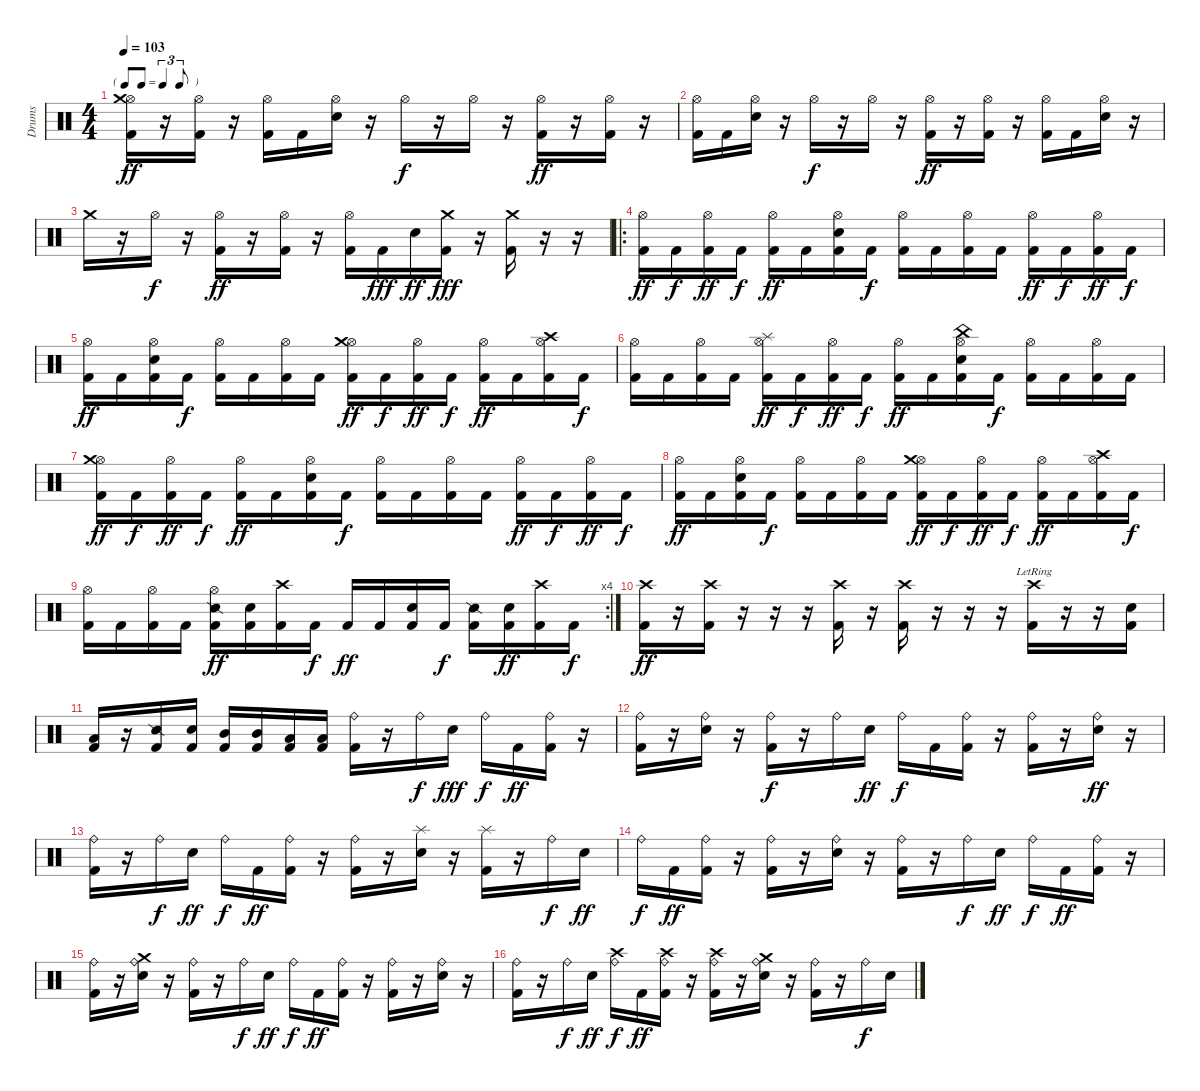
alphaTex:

\track ("Drums" "Drums") {instrument percussion}
\staff {score}
\articulation defaults
\ts (4 4)
\tf triplet8th
\tempo 103
\clef neutral
\ks c
("Hi-Hat (open)" "Crash medium (hit)" "Kick (hit) 2").16{dy ff} r.16 ("Hi-Hat (open)" "Kick (hit) 2").16 r.16 ("Hi-Hat (open)" "Kick (hit) 2").16 "Kick (hit) 2".16 ("Hi-Hat (open)" "Electric Snare (hit)").16 r.16 "Hi-Hat (open)".16{dy f} r.16 "Hi-Hat (open)".16 r.16 ("Hi-Hat (open)" "Kick (hit) 2").16{dy ff} r.16 ("Hi-Hat (open)" "Kick (hit) 2").16 r.16 |
("Hi-Hat (open)" "Kick (hit) 2").16 "Kick (hit) 2".16 ("Hi-Hat (open)" "Electric Snare (hit)").16 r.16 "Hi-Hat (open)".16{dy f} r.16 "Hi-Hat (open)".16 r.16 ("Hi-Hat (open)" "Kick (hit) 2").16{dy ff} r.16 ("Hi-Hat (open)" "Kick (hit) 2").16 r.16 ("Hi-Hat (open)" "Kick (hit) 2").16 "Kick (hit) 2".16 ("Hi-Hat (open)" "Electric Snare (hit)").16 r.16 |
"Crash medium (hit)".16 r.16 "Hi-Hat (open)".16{dy f} r.16 ("Hi-Hat (open)" "Kick (hit) 2").16{dy ff} r.16 ("Hi-Hat (open)" "Kick (hit) 2").16 r.16 ("Hi-Hat (open)" "Kick (hit) 2").16 "Kick (hit) 2".16{dy fff} "Electric Snare (hit)".16{dy ff} ("Crash medium (hit)" "Kick (hit) 2").16{dy fff} r.16 ("Crash medium (hit)" "Kick (hit) 2").16 r.16 r.16 |
\ro
("Hi-Hat (open)" "Kick (hit) 2").16{dy ff} "Kick (hit) 2".16{dy f} ("Hi-Hat (open)" "Kick (hit) 2").16{dy ff} "Kick (hit) 2".16{dy f} ("Hi-Hat (open)" "Kick (hit) 2").16{dy ff} "Kick (hit) 2".16 ("Hi-Hat (open)" "Electric Snare (hit)" "Kick (hit) 2").16 "Kick (hit) 2".16{dy f} ("Hi-Hat (open)" "Kick (hit) 2").16 "Kick (hit) 2".16 ("Hi-Hat (open)" "Kick (hit) 2").16 "Kick (hit) 2".16 ("Hi-Hat (open)" "Kick (hit) 2").16{dy ff} "Kick (hit) 2".16{dy f} ("Hi-Hat (open)" "Kick (hit) 2").16{dy ff} "Kick (hit) 2".16{dy f} |
("Hi-Hat (open)" "Kick (hit) 2").16{dy ff} "Kick (hit) 2".16 ("Hi-Hat (open)" "Electric Snare (hit)" "Kick (hit) 2").16 "Kick (hit) 2".16{dy f} ("Hi-Hat (open)" "Kick (hit) 2").16 "Kick (hit) 2".16 ("Hi-Hat (open)" "Kick (hit) 2").16 "Kick (hit) 2".16 ("Hi-Hat (open)" "Crash medium (hit)" "Kick (hit) 2").16{dy ff} "Kick (hit) 2".16{dy f} ("Hi-Hat (open)" "Kick (hit) 2").16{dy ff} "Kick (hit) 2".16{dy f} ("Hi-Hat (open)" "Kick (hit) 2").16{dy ff} "Kick (hit) 2".16 ("Hi-Hat (open)" "Crash high (hit)" "Kick (hit) 2").16 "Kick (hit) 2".16{dy f} |
("Hi-Hat (open)" "Kick (hit) 2").16 "Kick (hit) 2".16 ("Hi-Hat (open)" "Kick (hit) 2").16 "Kick (hit) 2".16 ("Hi-Hat (open)" "Splash (hit)" "Kick (hit) 2").16{dy ff} "Kick (hit) 2".16{dy f} ("Hi-Hat (open)" "Kick (hit) 2").16{dy ff} "Kick (hit) 2".16{dy f} ("Hi-Hat (open)" "Kick (hit) 2").16{dy ff} "Kick (hit) 2".16 ("Hi-Hat (open)" "China (hit)" "Electric Snare (hit)" "Kick (hit) 2").16 "Kick (hit) 2".16{dy f} ("Hi-Hat (open)" "Kick (hit) 2").16 "Kick (hit) 2".16 ("Hi-Hat (open)" "Kick (hit) 2").16 "Kick (hit) 2".16 |
("Hi-Hat (open)" "Crash medium (hit)" "Kick (hit) 2").16{dy ff} "Kick (hit) 2".16{dy f} ("Hi-Hat (open)" "Kick (hit) 2").16{dy ff} "Kick (hit) 2".16{dy f} ("Hi-Hat (open)" "Kick (hit) 2").16{dy ff} "Kick (hit) 2".16 ("Hi-Hat (open)" "Electric Snare (hit)" "Kick (hit) 2").16 "Kick (hit) 2".16{dy f} ("Hi-Hat (open)" "Kick (hit) 2").16 "Kick (hit) 2".16 ("Hi-Hat (open)" "Kick (hit) 2").16 "Kick (hit) 2".16 ("Hi-Hat (open)" "Kick (hit) 2").16{dy ff} "Kick (hit) 2".16{dy f} ("Hi-Hat (open)" "Kick (hit) 2").16{dy ff} "Kick (hit) 2".16{dy f} |
("Hi-Hat (open)" "Kick (hit) 2").16{dy ff} "Kick (hit) 2".16 ("Hi-Hat (open)" "Electric Snare (hit)" "Kick (hit) 2").16 "Kick (hit) 2".16{dy f} ("Hi-Hat (open)" "Kick (hit) 2").16 "Kick (hit) 2".16 ("Hi-Hat (open)" "Kick (hit) 2").16 "Kick (hit) 2".16 ("Hi-Hat (open)" "Crash medium (hit)" "Kick (hit) 2").16{dy ff} "Kick (hit) 2".16{dy f} ("Hi-Hat (open)" "Kick (hit) 2").16{dy ff} "Kick (hit) 2".16{dy f} ("Hi-Hat (open)" "Kick (hit) 2").16{dy ff} "Kick (hit) 2".16 ("Hi-Hat (open)" "Crash high (hit)" "Kick (hit) 2").16 "Kick (hit) 2".16{dy f} |
\rc 4
("Hi-Hat (open)" "Kick (hit) 2").16 "Kick (hit) 2".16 ("Hi-Hat (open)" "Kick (hit) 2").16 "Kick (hit) 2".16 ("Hi-Hat (open)" "Snare (side stick) 2" "Kick (hit) 2").16{dy ff} ("Electric Snare (hit)" "Kick (hit) 2").16 ("Crash high (hit)" "Kick (hit) 2").16 "Kick (hit) 2".16{dy f} "Kick (hit) 2".16{dy ff} "Kick (hit) 2".16 ("Electric Snare (hit)" "Kick (hit) 2").16 "Kick (hit) 2".16{dy f} ("Snare (side stick) 2" "Kick (hit) 2").16 ("Electric Snare (hit)" "Kick (hit) 2").16{dy ff} ("Crash high (hit)" "Kick (hit) 2").16 "Kick (hit) 2".16{dy f} |
("Crash high (hit)" "Kick (hit) 2").16{dy ff} r.16 ("Crash high (hit)" "Kick (hit) 2").16 r.16 r.16 r.16 ("Crash high (hit)" "Kick (hit) 2").16 r.16 ("Crash high (hit)" "Kick (hit) 2").16 r.16 r.16 r.16 ("Crash high (hit)"{lr} "Kick (hit) 2").16 r.16 r.16 ("Electric Snare (hit)" "Kick (hit) 2").16 |
("Low Tom (hit)" "Kick (hit) 2").16 r.16 ("Snare (side stick) 2" "Kick (hit) 2").16 ("Electric Snare (hit)" "Kick (hit) 2").16 ("Mid Tom (hit)" "Kick (hit) 2").16 ("Mid Tom (hit)" "Kick (hit) 2").16 ("Low Tom (hit)" "Kick (hit) 2").16 ("Low Tom (hit)" "Kick (hit) 2").16 ("Ride (bell)" "Kick (hit) 2").16 r.16 "Ride (bell)".16{dy f} "Electric Snare (hit)".16{dy fff} "Ride (bell)".16{dy f} "Kick (hit) 2".16{dy ff} ("Ride (bell)" "Kick (hit) 2").16 r.16 |
("Ride (bell)" "Kick (hit) 2").16 r.16 ("Ride (bell)" "Electric Snare (hit)").16 r.16 ("Ride (bell)" "Kick (hit) 2").16{dy f} r.16 "Ride (bell)".16 "Electric Snare (hit)".16{dy ff} "Ride (bell)".16{dy f} "Kick (hit) 2".16 ("Ride (bell)" "Kick (hit) 2").16 r.16 ("Ride (bell)" "Kick (hit) 2").16 r.16 ("Ride (bell)" "Electric Snare (hit)").16{dy ff} r.16 |
("Ride (bell)" "Kick (hit) 2").16 r.16 "Ride (bell)".16{dy f} "Electric Snare (hit)".16{dy ff} "Ride (bell)".16{dy f} "Kick (hit) 2".16{dy ff} ("Ride (bell)" "Kick (hit) 2").16 r.16 ("Ride (bell)" "Kick (hit) 2").16 r.16 ("Splash (hit)" "Electric Snare (hit)").16 r.16 ("Splash (hit)" "Kick (hit) 2").16 r.16 "Ride (bell)".16{dy f} "Electric Snare (hit)".16{dy ff} |
"Ride (bell)".16{dy f} "Kick (hit) 2".16{dy ff} ("Ride (bell)" "Kick (hit) 2").16 r.16 ("Ride (bell)" "Kick (hit) 2").16 r.16 ("Ride (bell)" "Electric Snare (hit)").16 r.16 ("Ride (bell)" "Kick (hit) 2").16 r.16 "Ride (bell)".16{dy f} "Electric Snare (hit)".16{dy ff} "Ride (bell)".16{dy f} "Kick (hit) 2".16{dy ff} ("Ride (bell)" "Kick (hit) 2").16 r.16 |
("Ride (bell)" "Kick (hit) 2").16 r.16 ("Ride (bell)" "Crash medium (hit)" "Electric Snare (hit)").16 r.16 ("Ride (bell)" "Kick (hit) 2").16 r.16 "Ride (bell)".16{dy f} "Electric Snare (hit)".16{dy ff} "Ride (bell)".16{dy f} "Kick (hit) 2".16{dy ff} ("Ride (bell)" "Kick (hit) 2").16 r.16 ("Ride (bell)" "Kick (hit) 2").16 r.16 ("Ride (bell)" "Electric Snare (hit)").16 r.16 |
("Ride (bell)" "Kick (hit) 2").16 r.16 "Ride (bell)".16{dy f} "Electric Snare (hit)".16{dy ff} ("Ride (bell)" "Crash high (hit)").16{dy f} "Kick (hit) 2".16{dy ff} ("Ride (bell)" "Crash high (hit)" "Kick (hit) 2").16 r.16 ("Ride (bell)" "Crash high (hit)" "Kick (hit) 2").16 r.16 ("Ride (bell)" "Crash medium (hit)" "Electric Snare (hit)").16 r.16 ("Ride (bell)" "Kick (hit) 2").16 r.16 "Ride (bell)".16{dy f} "Electric Snare (hit)".16
